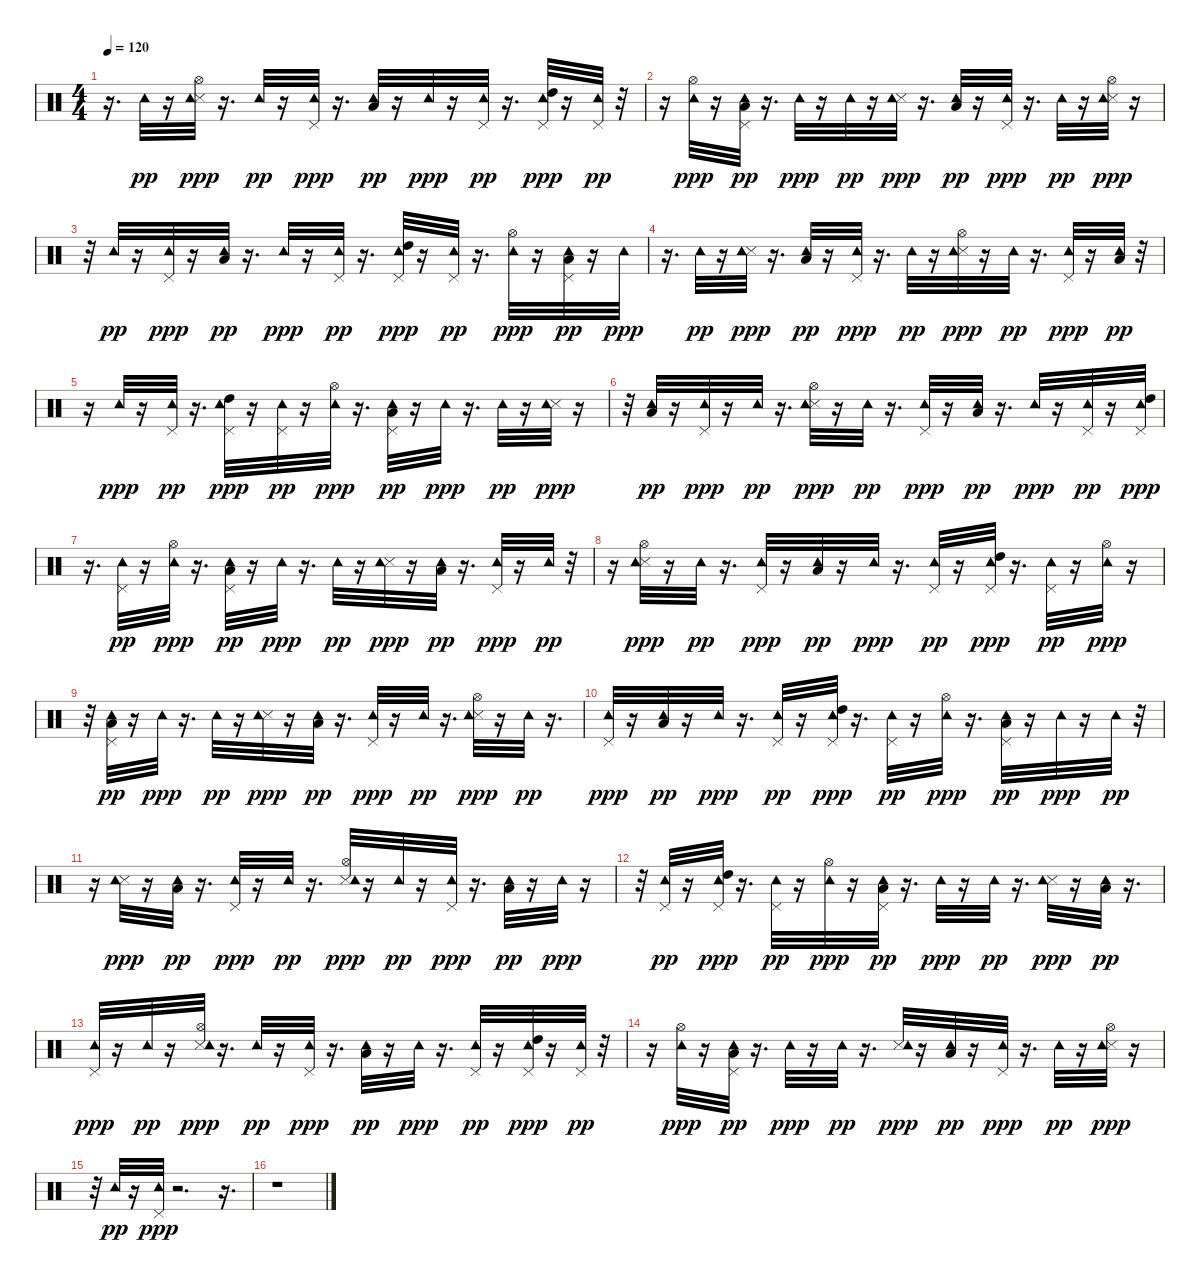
\track "" {instrument percussion}
\staff {score}
\articulation defaults
\ts (4 4)
\tempo 120
\clef neutral
\ks c
r.16{d dy ppp} "Tambourine (hit)".32{dy pp} r.16 ("Hi-Hat (open)" "Snare (side stick) 3" "Tambourine (hit)").32{dy ppp} r.16{d} "Tambourine (hit)".32{dy pp} r.16 ("Pedal Hi-Hat (hit)" "Tambourine (hit)").32{dy ppp} r.16{d} ("Low Floor Tom (hit)" "Tambourine (hit)").32{dy pp} r.16 "Tambourine (hit)".32{dy ppp} r.16 ("Pedal Hi-Hat (hit)" "Tambourine (hit)").32{dy pp} r.16{d} ("Pedal Hi-Hat (hit)" "High Tom (hit)" "Tambourine (hit)").32{dy ppp} r.16 ("Pedal Hi-Hat (hit)" "Tambourine (hit)").32{dy pp} r.32 |
r.16 ("Hi-Hat (open)" "Tambourine (hit)").32{dy ppp} r.16 ("Pedal Hi-Hat (hit)" "Low Tom (hit)" "Tambourine (hit)").32{dy pp} r.16{d} "Tambourine (hit)".32{dy ppp} r.16 "Tambourine (hit)".32{dy pp} r.16 ("Snare (side stick) 3" "Tambourine (hit)").32{dy ppp} r.16{d} ("Low Floor Tom (hit)" "Tambourine (hit)").32{dy pp} r.16 ("Pedal Hi-Hat (hit)" "Tambourine (hit)").32{dy ppp} r.16{d} "Tambourine (hit)".32{dy pp} r.16 ("Hi-Hat (open)" "Snare (side stick) 3" "Tambourine (hit)").32{dy ppp} r.16 |
r.32 "Tambourine (hit)".32{dy pp} r.16 ("Pedal Hi-Hat (hit)" "Tambourine (hit)").32{dy ppp} r.16 ("Low Floor Tom (hit)" "Tambourine (hit)").32{dy pp} r.16{d} "Tambourine (hit)".32{dy ppp} r.16 ("Pedal Hi-Hat (hit)" "Tambourine (hit)").32{dy pp} r.16{d} ("Pedal Hi-Hat (hit)" "High Tom (hit)" "Tambourine (hit)").32{dy ppp} r.16 ("Pedal Hi-Hat (hit)" "Tambourine (hit)").32{dy pp} r.16{d} ("Hi-Hat (open)" "Tambourine (hit)").32{dy ppp} r.16 ("Pedal Hi-Hat (hit)" "Low Tom (hit)" "Tambourine (hit)").32{dy pp} r.16 "Tambourine (hit)".32{dy ppp} |
r.16{d} "Tambourine (hit)".32{dy pp} r.16 ("Snare (side stick) 3" "Tambourine (hit)").32{dy ppp} r.16{d} ("Low Floor Tom (hit)" "Tambourine (hit)").32{dy pp} r.16 ("Pedal Hi-Hat (hit)" "Tambourine (hit)").32{dy ppp} r.16{d} "Tambourine (hit)".32{dy pp} r.16 ("Hi-Hat (open)" "Snare (side stick) 3" "Tambourine (hit)").32{dy ppp} r.16 "Tambourine (hit)".32{dy pp} r.16{d} ("Pedal Hi-Hat (hit)" "Tambourine (hit)").32{dy ppp} r.16 ("Low Floor Tom (hit)" "Tambourine (hit)").32{dy pp} r.32 |
r.16 "Tambourine (hit)".32{dy ppp} r.16 ("Pedal Hi-Hat (hit)" "Tambourine (hit)").32{dy pp} r.16{d} ("Pedal Hi-Hat (hit)" "High Tom (hit)" "Tambourine (hit)").32{dy ppp} r.16 ("Pedal Hi-Hat (hit)" "Tambourine (hit)").32{dy pp} r.16 ("Hi-Hat (open)" "Tambourine (hit)").32{dy ppp} r.16{d} ("Pedal Hi-Hat (hit)" "Low Tom (hit)" "Tambourine (hit)").32{dy pp} r.16 "Tambourine (hit)".32{dy ppp} r.16{d} "Tambourine (hit)".32{dy pp} r.16 ("Snare (side stick) 3" "Tambourine (hit)").32{dy ppp} r.16 |
r.32 ("Low Floor Tom (hit)" "Tambourine (hit)").32{dy pp} r.16 ("Pedal Hi-Hat (hit)" "Tambourine (hit)").32{dy ppp} r.16 "Tambourine (hit)".32{dy pp} r.16{d} ("Hi-Hat (open)" "Snare (side stick) 3" "Tambourine (hit)").32{dy ppp} r.16 "Tambourine (hit)".32{dy pp} r.16{d} ("Pedal Hi-Hat (hit)" "Tambourine (hit)").32{dy ppp} r.16 ("Low Floor Tom (hit)" "Tambourine (hit)").32{dy pp} r.16{d} "Tambourine (hit)".32{dy ppp} r.16 ("Pedal Hi-Hat (hit)" "Tambourine (hit)").32{dy pp} r.16 ("Pedal Hi-Hat (hit)" "High Tom (hit)" "Tambourine (hit)").32{dy ppp} |
r.16{d} ("Pedal Hi-Hat (hit)" "Tambourine (hit)").32{dy pp} r.16 ("Hi-Hat (open)" "Tambourine (hit)").32{dy ppp} r.16{d} ("Pedal Hi-Hat (hit)" "Low Tom (hit)" "Tambourine (hit)").32{dy pp} r.16 "Tambourine (hit)".32{dy ppp} r.16{d} "Tambourine (hit)".32{dy pp} r.16 ("Snare (side stick) 3" "Tambourine (hit)").32{dy ppp} r.16 ("Low Floor Tom (hit)" "Tambourine (hit)").32{dy pp} r.16{d} ("Pedal Hi-Hat (hit)" "Tambourine (hit)").32{dy ppp} r.16 "Tambourine (hit)".32{dy pp} r.32 |
r.16 ("Hi-Hat (open)" "Snare (side stick) 3" "Tambourine (hit)").32{dy ppp} r.16 "Tambourine (hit)".32{dy pp} r.16{d} ("Pedal Hi-Hat (hit)" "Tambourine (hit)").32{dy ppp} r.16 ("Low Floor Tom (hit)" "Tambourine (hit)").32{dy pp} r.16 "Tambourine (hit)".32{dy ppp} r.16{d} ("Pedal Hi-Hat (hit)" "Tambourine (hit)").32{dy pp} r.16 ("Pedal Hi-Hat (hit)" "High Tom (hit)" "Tambourine (hit)").32{dy ppp} r.16{d} ("Pedal Hi-Hat (hit)" "Tambourine (hit)").32{dy pp} r.16 ("Hi-Hat (open)" "Tambourine (hit)").32{dy ppp} r.16 |
r.32 ("Pedal Hi-Hat (hit)" "Low Tom (hit)" "Tambourine (hit)").32{dy pp} r.16 "Tambourine (hit)".32{dy ppp} r.16{d} "Tambourine (hit)".32{dy pp} r.16 ("Snare (side stick) 3" "Tambourine (hit)").32{dy ppp} r.16 ("Low Floor Tom (hit)" "Tambourine (hit)").32{dy pp} r.16{d} ("Pedal Hi-Hat (hit)" "Tambourine (hit)").32{dy ppp} r.16 "Tambourine (hit)".32{dy pp} r.16{d} ("Hi-Hat (open)" "Snare (side stick) 3" "Tambourine (hit)").32{dy ppp} r.16 "Tambourine (hit)".32{dy pp} r.16{d} |
("Pedal Hi-Hat (hit)" "Tambourine (hit)").32{dy ppp} r.16 ("Low Floor Tom (hit)" "Tambourine (hit)").32{dy pp} r.16 "Tambourine (hit)".32{dy ppp} r.16{d} ("Pedal Hi-Hat (hit)" "Tambourine (hit)").32{dy pp} r.16 ("Pedal Hi-Hat (hit)" "High Tom (hit)" "Tambourine (hit)").32{dy ppp} r.16{d} ("Pedal Hi-Hat (hit)" "Tambourine (hit)").32{dy pp} r.16 ("Hi-Hat (open)" "Tambourine (hit)").32{dy ppp} r.16{d} ("Pedal Hi-Hat (hit)" "Low Tom (hit)" "Tambourine (hit)").32{dy pp} r.16 "Tambourine (hit)".32{dy ppp} r.16 "Tambourine (hit)".32{dy pp} r.32 |
r.16 ("Snare (side stick) 3" "Tambourine (hit)").32{dy ppp} r.16 ("Low Floor Tom (hit)" "Tambourine (hit)").32{dy pp} r.16{d} ("Pedal Hi-Hat (hit)" "Tambourine (hit)").32{dy ppp} r.16 "Tambourine (hit)".32{dy pp} r.16{d} ("Hi-Hat (open)" "Snare (side stick) 3" "Tambourine (hit)").32{dy ppp} r.16 "Tambourine (hit)".32{dy pp} r.16 ("Pedal Hi-Hat (hit)" "Tambourine (hit)").32{dy ppp} r.16{d} ("Low Floor Tom (hit)" "Tambourine (hit)").32{dy pp} r.16 "Tambourine (hit)".32{dy ppp} r.16 |
r.32 ("Pedal Hi-Hat (hit)" "Tambourine (hit)").32{dy pp} r.16 ("Pedal Hi-Hat (hit)" "High Tom (hit)" "Tambourine (hit)").32{dy ppp} r.16{d} ("Pedal Hi-Hat (hit)" "Tambourine (hit)").32{dy pp} r.16 ("Hi-Hat (open)" "Tambourine (hit)").32{dy ppp} r.16 ("Pedal Hi-Hat (hit)" "Low Tom (hit)" "Tambourine (hit)").32{dy pp} r.16{d} "Tambourine (hit)".32{dy ppp} r.16 "Tambourine (hit)".32{dy pp} r.16{d} ("Snare (side stick) 3" "Tambourine (hit)").32{dy ppp} r.16 ("Low Floor Tom (hit)" "Tambourine (hit)").32{dy pp} r.16{d} |
("Pedal Hi-Hat (hit)" "Tambourine (hit)").32{dy ppp} r.16 "Tambourine (hit)".32{dy pp} r.16 ("Hi-Hat (open)" "Snare (side stick) 3" "Tambourine (hit)").32{dy ppp} r.16{d} "Tambourine (hit)".32{dy pp} r.16 ("Pedal Hi-Hat (hit)" "Tambourine (hit)").32{dy ppp} r.16{d} ("Low Floor Tom (hit)" "Tambourine (hit)").32{dy pp} r.16 "Tambourine (hit)".32{dy ppp} r.16{d} ("Pedal Hi-Hat (hit)" "Tambourine (hit)").32{dy pp} r.16 ("Pedal Hi-Hat (hit)" "High Tom (hit)" "Tambourine (hit)").32{dy ppp} r.16 ("Pedal Hi-Hat (hit)" "Tambourine (hit)").32{dy pp} r.32 |
r.16 ("Hi-Hat (open)" "Tambourine (hit)").32{dy ppp} r.16 ("Pedal Hi-Hat (hit)" "Low Tom (hit)" "Tambourine (hit)").32{dy pp} r.16{d} "Tambourine (hit)".32{dy ppp} r.16 "Tambourine (hit)".32{dy pp} r.16{d} ("Snare (side stick) 3" "Tambourine (hit)").32{dy ppp} r.16 ("Low Floor Tom (hit)" "Tambourine (hit)").32{dy pp} r.16 ("Pedal Hi-Hat (hit)" "Tambourine (hit)").32{dy ppp} r.16{d} "Tambourine (hit)".32{dy pp} r.16 ("Hi-Hat (open)" "Snare (side stick) 3" "Tambourine (hit)").32{dy ppp} r.16 |
r.32 "Tambourine (hit)".32{dy pp} r.16 ("Pedal Hi-Hat (hit)" "Tambourine (hit)").32{dy ppp} r.2{d} r.16{d} |
r.1
